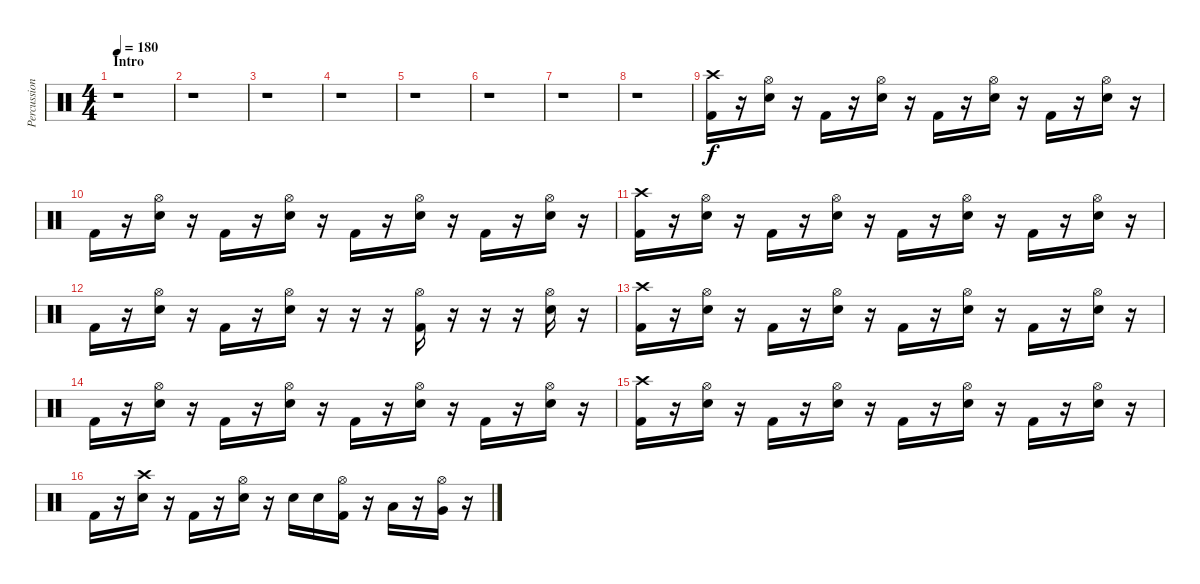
\track ("Percussion" "Percussion") {instrument percussion}
\staff {score}
\articulation defaults
\ts (4 4)
\section ("" "Intro")
\tempo 180
\clef neutral
\ks c
r.1{dy f} |
r.1 |
r.1 |
r.1 |
r.1 |
r.1 |
r.1 |
r.1 |
("Crash high (hit)" "Kick (hit) 2").16 r.16 ("Hi-Hat (open)" "Electric Snare (hit)").16 r.16 "Kick (hit) 2".16 r.16 ("Hi-Hat (open)" "Electric Snare (hit)").16 r.16 "Kick (hit) 2".16 r.16 ("Hi-Hat (open)" "Electric Snare (hit)").16 r.16 "Kick (hit) 2".16 r.16 ("Hi-Hat (open)" "Electric Snare (hit)").16 r.16 |
"Kick (hit) 2".16 r.16 ("Hi-Hat (open)" "Electric Snare (hit)").16 r.16 "Kick (hit) 2".16 r.16 ("Hi-Hat (open)" "Electric Snare (hit)").16 r.16 "Kick (hit) 2".16 r.16 ("Hi-Hat (open)" "Electric Snare (hit)").16 r.16 "Kick (hit) 2".16 r.16 ("Hi-Hat (open)" "Electric Snare (hit)").16 r.16 |
("Crash high (hit)" "Kick (hit) 2").16 r.16 ("Hi-Hat (open)" "Electric Snare (hit)").16 r.16 "Kick (hit) 2".16 r.16 ("Hi-Hat (open)" "Electric Snare (hit)").16 r.16 "Kick (hit) 2".16 r.16 ("Hi-Hat (open)" "Electric Snare (hit)").16 r.16 "Kick (hit) 2".16 r.16 ("Hi-Hat (open)" "Electric Snare (hit)").16 r.16 |
"Kick (hit) 2".16 r.16 ("Hi-Hat (open)" "Electric Snare (hit)").16 r.16 "Kick (hit) 2".16 r.16 ("Hi-Hat (open)" "Electric Snare (hit)").16 r.16 r.16 r.16 ("Hi-Hat (open)" "Kick (hit) 2").16 r.16 r.16 r.16 ("Hi-Hat (open)" "Electric Snare (hit)").16 r.16 |
("Crash high (hit)" "Kick (hit) 2").16 r.16 ("Hi-Hat (open)" "Electric Snare (hit)").16 r.16 "Kick (hit) 2".16 r.16 ("Hi-Hat (open)" "Electric Snare (hit)").16 r.16 "Kick (hit) 2".16 r.16 ("Hi-Hat (open)" "Electric Snare (hit)").16 r.16 "Kick (hit) 2".16 r.16 ("Hi-Hat (open)" "Electric Snare (hit)").16 r.16 |
"Kick (hit) 2".16 r.16 ("Hi-Hat (open)" "Electric Snare (hit)").16 r.16 "Kick (hit) 2".16 r.16 ("Hi-Hat (open)" "Electric Snare (hit)").16 r.16 "Kick (hit) 2".16 r.16 ("Hi-Hat (open)" "Electric Snare (hit)").16 r.16 "Kick (hit) 2".16 r.16 ("Hi-Hat (open)" "Electric Snare (hit)").16 r.16 |
("Crash high (hit)" "Kick (hit) 2").16 r.16 ("Hi-Hat (open)" "Electric Snare (hit)").16 r.16 "Kick (hit) 2".16 r.16 ("Hi-Hat (open)" "Electric Snare (hit)").16 r.16 "Kick (hit) 2".16 r.16 ("Hi-Hat (open)" "Electric Snare (hit)").16 r.16 "Kick (hit) 2".16 r.16 ("Hi-Hat (open)" "Electric Snare (hit)").16 r.16 |
"Kick (hit) 2".16 r.16 ("Crash high (hit)" "Electric Snare (hit)").16 r.16 "Kick (hit) 2".16 r.16 ("Hi-Hat (open)" "Electric Snare (hit)").16 r.16 "Electric Snare (hit)".16 "Electric Snare (hit)".16 ("Hi-Hat (open)" "Kick (hit) 2").16 r.16 "Low Tom (hit)".16 r.16 ("Hi-Hat (open)" "Very Low Tom (hit)").16 r.16
